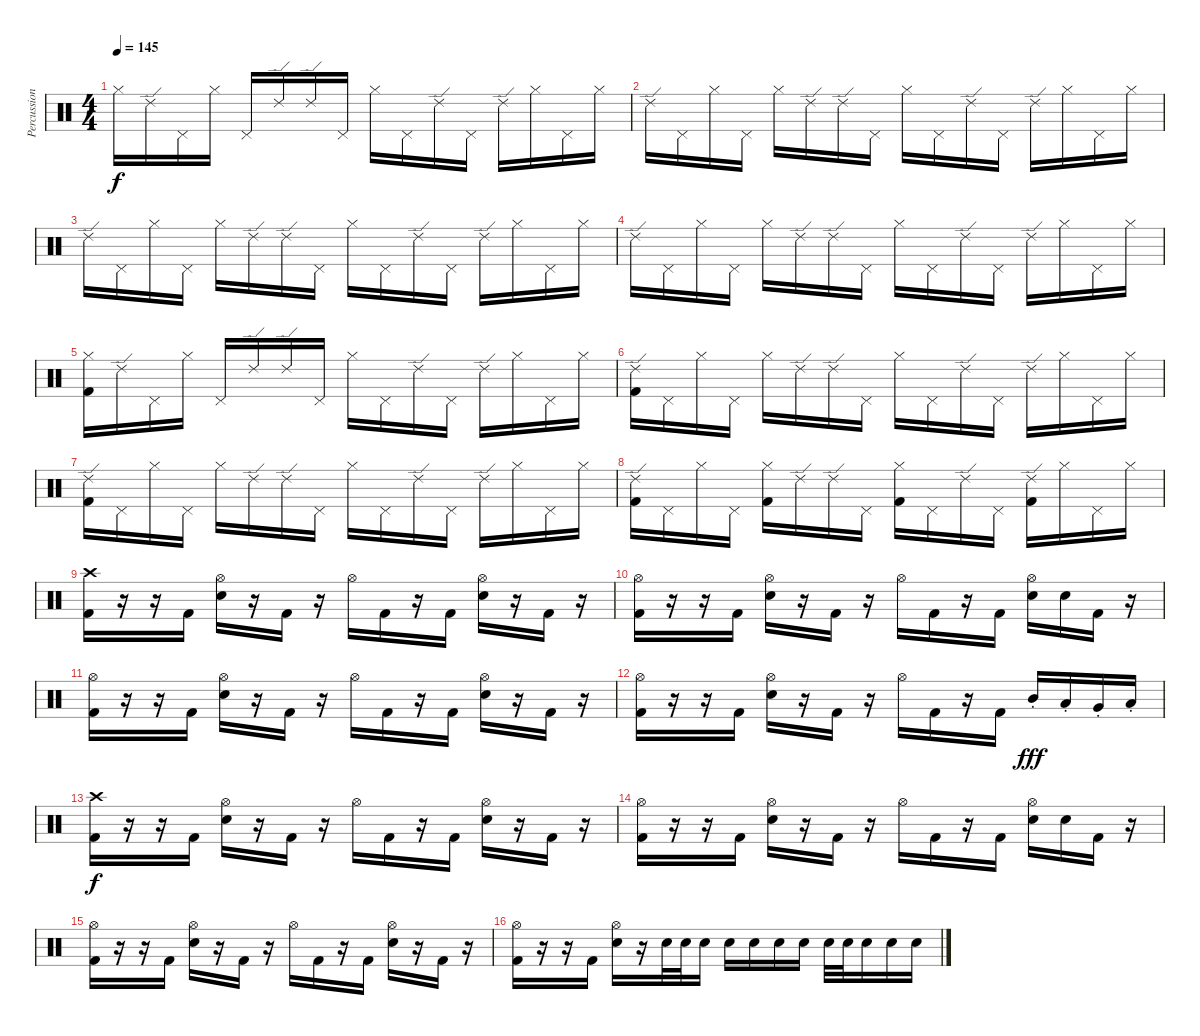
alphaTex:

\track ("Percussion" "Percussion") {instrument percussion}
\staff {score}
\articulation defaults
\ts (4 4)
\section ("" "")
\tempo 145
\clef neutral
\ks c "Hi-Hat (closed)".16{dy f} "Ride (edge) 2".16 "Pedal Hi-Hat (hit)".16 "Hi-Hat (closed)".16 "Pedal Hi-Hat (hit)".16 "Ride (edge) 2".16 "Ride (edge) 2".16 "Pedal Hi-Hat (hit)".16 "Hi-Hat (closed)".16 "Pedal Hi-Hat (hit)".16 "Ride (edge) 2".16 "Pedal Hi-Hat (hit)".16 "Ride (edge) 2".16 "Hi-Hat (closed)".16 "Pedal Hi-Hat (hit)".16 "Hi-Hat (closed)".16
|
"Ride (edge) 2".16 "Pedal Hi-Hat (hit)".16 "Hi-Hat (closed)".16 "Pedal Hi-Hat (hit)".16 "Hi-Hat (closed)".16 "Ride (edge) 2".16 "Ride (edge) 2".16 "Pedal Hi-Hat (hit)".16 "Hi-Hat (closed)".16 "Pedal Hi-Hat (hit)".16 "Ride (edge) 2".16 "Pedal Hi-Hat (hit)".16 "Ride (edge) 2".16 "Hi-Hat (closed)".16 "Pedal Hi-Hat (hit)".16 "Hi-Hat (closed)".16 |
"Ride (edge) 2".16 "Pedal Hi-Hat (hit)".16 "Hi-Hat (closed)".16 "Pedal Hi-Hat (hit)".16 "Hi-Hat (closed)".16 "Ride (edge) 2".16 "Ride (edge) 2".16 "Pedal Hi-Hat (hit)".16 "Hi-Hat (closed)".16 "Pedal Hi-Hat (hit)".16 "Ride (edge) 2".16 "Pedal Hi-Hat (hit)".16 "Ride (edge) 2".16 "Hi-Hat (closed)".16 "Pedal Hi-Hat (hit)".16 "Hi-Hat (closed)".16 |
"Ride (edge) 2".16 "Pedal Hi-Hat (hit)".16 "Hi-Hat (closed)".16 "Pedal Hi-Hat (hit)".16 "Hi-Hat (closed)".16 "Ride (edge) 2".16 "Ride (edge) 2".16 "Pedal Hi-Hat (hit)".16 "Hi-Hat (closed)".16 "Pedal Hi-Hat (hit)".16 "Ride (edge) 2".16 "Pedal Hi-Hat (hit)".16 "Ride (edge) 2".16 "Hi-Hat (closed)".16 "Pedal Hi-Hat (hit)".16 "Hi-Hat (closed)".16 |
("Hi-Hat (closed)" "Kick (hit) 2").16 "Ride (edge) 2".16 "Pedal Hi-Hat (hit)".16 "Hi-Hat (closed)".16 "Pedal Hi-Hat (hit)".16 "Ride (edge) 2".16 "Ride (edge) 2".16 "Pedal Hi-Hat (hit)".16 "Hi-Hat (closed)".16 "Pedal Hi-Hat (hit)".16 "Ride (edge) 2".16 "Pedal Hi-Hat (hit)".16 "Ride (edge) 2".16 "Hi-Hat (closed)".16 "Pedal Hi-Hat (hit)".16 "Hi-Hat (closed)".16 |
("Ride (edge) 2" "Kick (hit) 2").16 "Pedal Hi-Hat (hit)".16 "Hi-Hat (closed)".16 "Pedal Hi-Hat (hit)".16 "Hi-Hat (closed)".16 "Ride (edge) 2".16 "Ride (edge) 2".16 "Pedal Hi-Hat (hit)".16 "Hi-Hat (closed)".16 "Pedal Hi-Hat (hit)".16 "Ride (edge) 2".16 "Pedal Hi-Hat (hit)".16 "Ride (edge) 2".16 "Hi-Hat (closed)".16 "Pedal Hi-Hat (hit)".16 "Hi-Hat (closed)".16 |
("Ride (edge) 2" "Kick (hit) 2").16 "Pedal Hi-Hat (hit)".16 "Hi-Hat (closed)".16 "Pedal Hi-Hat (hit)".16 "Hi-Hat (closed)".16 "Ride (edge) 2".16 "Ride (edge) 2".16 "Pedal Hi-Hat (hit)".16 "Hi-Hat (closed)".16 "Pedal Hi-Hat (hit)".16 "Ride (edge) 2".16 "Pedal Hi-Hat (hit)".16 "Ride (edge) 2".16 "Hi-Hat (closed)".16 "Pedal Hi-Hat (hit)".16 "Hi-Hat (closed)".16 |
("Ride (edge) 2" "Kick (hit) 2").16 "Pedal Hi-Hat (hit)".16 "Hi-Hat (closed)".16 "Pedal Hi-Hat (hit)".16 ("Hi-Hat (closed)" "Kick (hit) 2").16 "Ride (edge) 2".16 "Ride (edge) 2".16 "Pedal Hi-Hat (hit)".16 ("Hi-Hat (closed)" "Kick (hit) 2").16 "Pedal Hi-Hat (hit)".16 "Ride (edge) 2".16 "Pedal Hi-Hat (hit)".16 ("Ride (edge) 2" "Kick (hit) 2").16 "Hi-Hat (closed)".16 "Pedal Hi-Hat (hit)".16 "Hi-Hat (closed)".16 |
("Crash high (hit)" "Kick (hit) 2").16 r.16 r.16 "Kick (hit) 2".16 ("Hi-Hat (open)" "Snare (hit) 2").16 r.16 "Kick (hit) 2".16 r.16 "Hi-Hat (open)".16 "Kick (hit) 2".16 r.16 "Kick (hit) 2".16 ("Hi-Hat (open)" "Snare (hit) 2").16 r.16 "Kick (hit) 2".16 r.16 |
("Hi-Hat (open)" "Kick (hit) 2").16 r.16 r.16 "Kick (hit) 2".16 ("Hi-Hat (open)" "Snare (hit) 2").16 r.16 "Kick (hit) 2".16 r.16 "Hi-Hat (open)".16 "Kick (hit) 2".16 r.16 "Kick (hit) 2".16 ("Hi-Hat (open)" "Snare (hit) 2").16 "Snare (hit) 2".16 "Kick (hit) 2".16 r.16 |
("Hi-Hat (open)" "Kick (hit) 2").16 r.16 r.16 "Kick (hit) 2".16 ("Hi-Hat (open)" "Snare (hit) 2").16 r.16 "Kick (hit) 2".16 r.16 "Hi-Hat (open)".16 "Kick (hit) 2".16 r.16 "Kick (hit) 2".16 ("Hi-Hat (open)" "Snare (hit) 2").16 r.16 "Kick (hit) 2".16 r.16 |
("Hi-Hat (open)" "Kick (hit) 2").16 r.16 r.16 "Kick (hit) 2".16 ("Hi-Hat (open)" "Snare (hit) 2").16 r.16 "Kick (hit) 2".16 r.16 "Hi-Hat (open)".16 "Kick (hit) 2".16 r.16 "Kick (hit) 2".16 "Mid Tom (hit)"{st}.16{dy fff} "Low Tom (hit)"{st}.16 "Very Low Tom (hit)"{st}.16 "Low Floor Tom (hit)"{st}.16 |
("Crash high (hit)" "Kick (hit) 2").16{dy f} r.16 r.16 "Kick (hit) 2".16 ("Hi-Hat (open)" "Snare (hit) 2").16 r.16 "Kick (hit) 2".16 r.16 "Hi-Hat (open)".16 "Kick (hit) 2".16 r.16 "Kick (hit) 2".16 ("Hi-Hat (open)" "Snare (hit) 2").16 r.16 "Kick (hit) 2".16 r.16 |
("Hi-Hat (open)" "Kick (hit) 2").16 r.16 r.16 "Kick (hit) 2".16 ("Hi-Hat (open)" "Snare (hit) 2").16 r.16 "Kick (hit) 2".16 r.16 "Hi-Hat (open)".16 "Kick (hit) 2".16 r.16 "Kick (hit) 2".16 ("Hi-Hat (open)" "Snare (hit) 2").16 "Snare (hit) 2".16 "Kick (hit) 2".16 r.16 |
("Hi-Hat (open)" "Kick (hit) 2").16 r.16 r.16 "Kick (hit) 2".16 ("Hi-Hat (open)" "Snare (hit) 2").16 r.16 "Kick (hit) 2".16 r.16 "Hi-Hat (open)".16 "Kick (hit) 2".16 r.16 "Kick (hit) 2".16 ("Hi-Hat (open)" "Snare (hit) 2").16 r.16 "Kick (hit) 2".16 r.16 |
("Hi-Hat (open)" "Kick (hit) 2").16 r.16 r.16 "Kick (hit) 2".16 ("Hi-Hat (open)" "Snare (hit) 2").16 r.16 "Snare (hit) 2".32 "Snare (hit) 2".32 "Snare (hit) 2".16 "Snare (hit) 2".16 "Snare (hit) 2".16 "Snare (hit) 2".16 "Snare (hit) 2".16 "Snare (hit) 2".32 "Snare (hit) 2".32 "Snare (hit) 2".16 "Snare (hit) 2".16 "Snare (hit) 2".16
